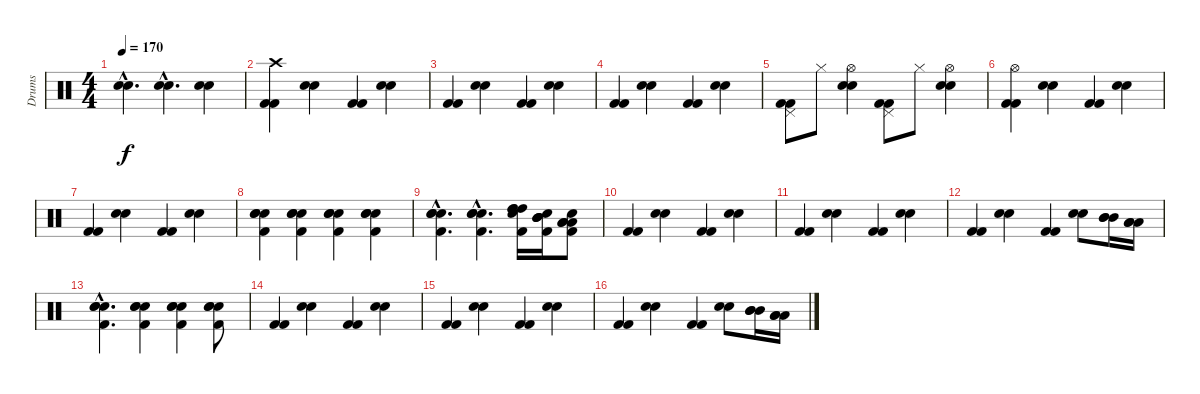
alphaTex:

\track ("Drums" "Drums") {instrument percussion}
\staff {score}
\articulation defaults
\ts (4 4)
\tempo 170
\clef neutral
\ks c
("Snare (hit) 2"{hac} "Electric Snare (hit)"{hac}).4{d dy f} ("Snare (hit) 2"{hac} "Electric Snare (hit)"{hac}).4{d} ("Snare (hit) 2" "Electric Snare (hit)").4 |
("Kick (hit) 2" "Kick (hit) 2" "Crash high (hit)").4 ("Snare (hit) 2" "Hand Clap (hit)").4 ("Kick (hit) 2" "Kick (hit) 2").4 ("Snare (hit) 2" "Hand Clap (hit)").4 |
("Kick (hit) 2" "Kick (hit) 2").4 ("Snare (hit) 2" "Hand Clap (hit)").4 ("Kick (hit) 2" "Kick (hit) 2").4 ("Snare (hit) 2" "Hand Clap (hit)").4 |
("Kick (hit) 2" "Kick (hit) 2").4 ("Snare (hit) 2" "Hand Clap (hit)").4 ("Kick (hit) 2" "Kick (hit) 2").4 ("Snare (hit) 2" "Hand Clap (hit)").4 |
("Kick (hit) 2" "Kick (hit) 2" "Pedal Hi-Hat (hit)").8 "Hi-Hat (closed)".8 ("Snare (hit) 2" "Hand Clap (hit)" "Hi-Hat (open)").4 ("Kick (hit) 2" "Kick (hit) 2" "Pedal Hi-Hat (hit)").8 "Hi-Hat (closed)".8 ("Snare (hit) 2" "Hand Clap (hit)" "Hi-Hat (open)").4 |
("Kick (hit) 2" "Kick (hit) 2" "Hi-Hat (open)").4 ("Snare (hit) 2" "Hand Clap (hit)").4 ("Kick (hit) 2" "Kick (hit) 2").4 ("Snare (hit) 2" "Hand Clap (hit)").4 |
("Kick (hit) 2" "Kick (hit) 2").4 ("Snare (hit) 2" "Hand Clap (hit)").4 ("Kick (hit) 2" "Kick (hit) 2").4 ("Snare (hit) 2" "Hand Clap (hit)").4 |
("Snare (hit) 2" "Electric Snare (hit)" "Hand Clap (hit)" "Kick (hit) 2").4 ("Snare (hit) 2" "Electric Snare (hit)" "Hand Clap (hit)" "Kick (hit) 2").4 ("Snare (hit) 2" "Electric Snare (hit)" "Hand Clap (hit)" "Kick (hit) 2").4 ("Snare (hit) 2" "Electric Snare (hit)" "Hand Clap (hit)" "Kick (hit) 2").4 |
("Snare (hit) 2"{hac} "Electric Snare (hit)"{hac} "Hand Clap (hit)"{hac} "Kick (hit) 2"{hac}).4{d} ("Snare (hit) 2"{hac} "Electric Snare (hit)"{hac} "Hand Clap (hit)"{hac} "Kick (hit) 2"{hac}).4{d} ("Snare (hit) 2" "High Tom (hit)" "High Tom (hit)" "High Tom (hit)" "Kick (hit) 2").16 ("Snare (hit) 2" "Mid Tom (hit)" "Mid Tom (hit)" "Mid Tom (hit)" "Kick (hit) 2").16 ("Snare (hit) 2" "Low Tom (hit)" "Low Tom (hit)" "Low Tom (hit)" "Kick (hit) 2").8 |
("Kick (hit) 2" "Kick (hit) 2").4 ("Snare (hit) 2" "Hand Clap (hit)").4 ("Kick (hit) 2" "Kick (hit) 2").4 ("Snare (hit) 2" "Hand Clap (hit)").4 |
("Kick (hit) 2" "Kick (hit) 2").4 ("Snare (hit) 2" "Hand Clap (hit)").4 ("Kick (hit) 2" "Kick (hit) 2").4 ("Snare (hit) 2" "Hand Clap (hit)").4 |
("Kick (hit) 2" "Kick (hit) 2").4 ("Snare (hit) 2" "Hand Clap (hit)").4 ("Kick (hit) 2" "Kick (hit) 2").4 ("Snare (hit) 2" "Hand Clap (hit)").8 ("Mid Tom (hit)" "Mid Tom (hit)" "Mid Tom (hit)").16 ("Low Floor Tom (hit)" "Low Floor Tom (hit)" "Low Floor Tom (hit)").16 |
("Snare (hit) 2"{hac} "Electric Snare (hit)"{hac} "Hand Clap (hit)"{hac} "Kick (hit) 2"{hac}).4{d} ("Snare (hit) 2" "Electric Snare (hit)" "Hand Clap (hit)" "Kick (hit) 2").4 ("Snare (hit) 2" "Electric Snare (hit)" "Hand Clap (hit)" "Kick (hit) 2").4 ("Snare (hit) 2" "Electric Snare (hit)" "Hand Clap (hit)" "Kick (hit) 2").8 |
("Kick (hit) 2" "Kick (hit) 2").4 ("Snare (hit) 2" "Hand Clap (hit)").4 ("Kick (hit) 2" "Kick (hit) 2").4 ("Snare (hit) 2" "Hand Clap (hit)").4 |
("Kick (hit) 2" "Kick (hit) 2").4 ("Snare (hit) 2" "Hand Clap (hit)").4 ("Kick (hit) 2" "Kick (hit) 2").4 ("Snare (hit) 2" "Hand Clap (hit)").4 |
("Kick (hit) 2" "Kick (hit) 2").4 ("Snare (hit) 2" "Hand Clap (hit)").4 ("Kick (hit) 2" "Kick (hit) 2").4 ("Snare (hit) 2" "Hand Clap (hit)").8 ("Mid Tom (hit)" "Mid Tom (hit)" "Mid Tom (hit)").16 ("Low Floor Tom (hit)" "Low Floor Tom (hit)" "Low Floor Tom (hit)").16
